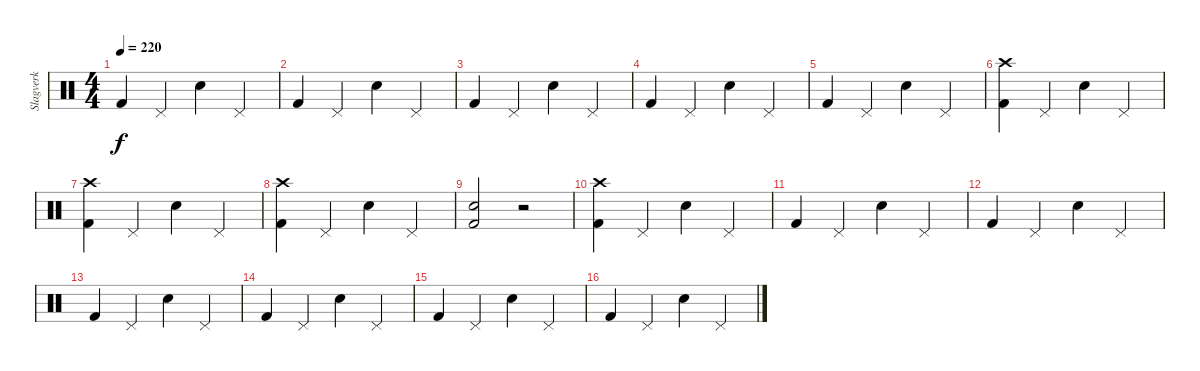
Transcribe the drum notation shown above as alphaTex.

\track ("Slagverk" "Slagverk") {instrument percussion}
\staff {score}
\articulation defaults
\ts (4 4)
\tempo 220
\clef neutral
\ks c "Kick (hit) 2".4{dy f} "Pedal Hi-Hat (hit)".4 "Snare (hit) 2".4 "Pedal Hi-Hat (hit)".4
|
"Kick (hit) 2".4 "Pedal Hi-Hat (hit)".4 "Snare (hit) 2".4 "Pedal Hi-Hat (hit)".4 |
"Kick (hit) 2".4 "Pedal Hi-Hat (hit)".4 "Snare (hit) 2".4 "Pedal Hi-Hat (hit)".4 |
"Kick (hit) 2".4 "Pedal Hi-Hat (hit)".4 "Snare (hit) 2".4 "Pedal Hi-Hat (hit)".4 |
"Kick (hit) 2".4 "Pedal Hi-Hat (hit)".4 "Snare (hit) 2".4 "Pedal Hi-Hat (hit)".4 |
("Crash high (hit)" "Kick (hit) 2").4 "Pedal Hi-Hat (hit)".4 "Snare (hit) 2".4 "Pedal Hi-Hat (hit)".4 |
("Crash high (hit)" "Kick (hit) 2").4 "Pedal Hi-Hat (hit)".4 "Snare (hit) 2".4 "Pedal Hi-Hat (hit)".4 |
("Crash high (hit)" "Kick (hit) 2").4 "Pedal Hi-Hat (hit)".4 "Snare (hit) 2".4 "Pedal Hi-Hat (hit)".4 |
("Kick (hit) 2" "Snare (hit) 2").2 r.2 |
("Crash high (hit)" "Kick (hit) 2").4 "Pedal Hi-Hat (hit)".4 "Snare (hit) 2".4 "Pedal Hi-Hat (hit)".4 |
"Kick (hit) 2".4 "Pedal Hi-Hat (hit)".4 "Snare (hit) 2".4 "Pedal Hi-Hat (hit)".4 |
"Kick (hit) 2".4 "Pedal Hi-Hat (hit)".4 "Snare (hit) 2".4 "Pedal Hi-Hat (hit)".4 |
"Kick (hit) 2".4 "Pedal Hi-Hat (hit)".4 "Snare (hit) 2".4 "Pedal Hi-Hat (hit)".4 |
"Kick (hit) 2".4 "Pedal Hi-Hat (hit)".4 "Snare (hit) 2".4 "Pedal Hi-Hat (hit)".4 |
"Kick (hit) 2".4 "Pedal Hi-Hat (hit)".4 "Snare (hit) 2".4 "Pedal Hi-Hat (hit)".4 |
"Kick (hit) 2".4 "Pedal Hi-Hat (hit)".4 "Snare (hit) 2".4 "Pedal Hi-Hat (hit)".4
